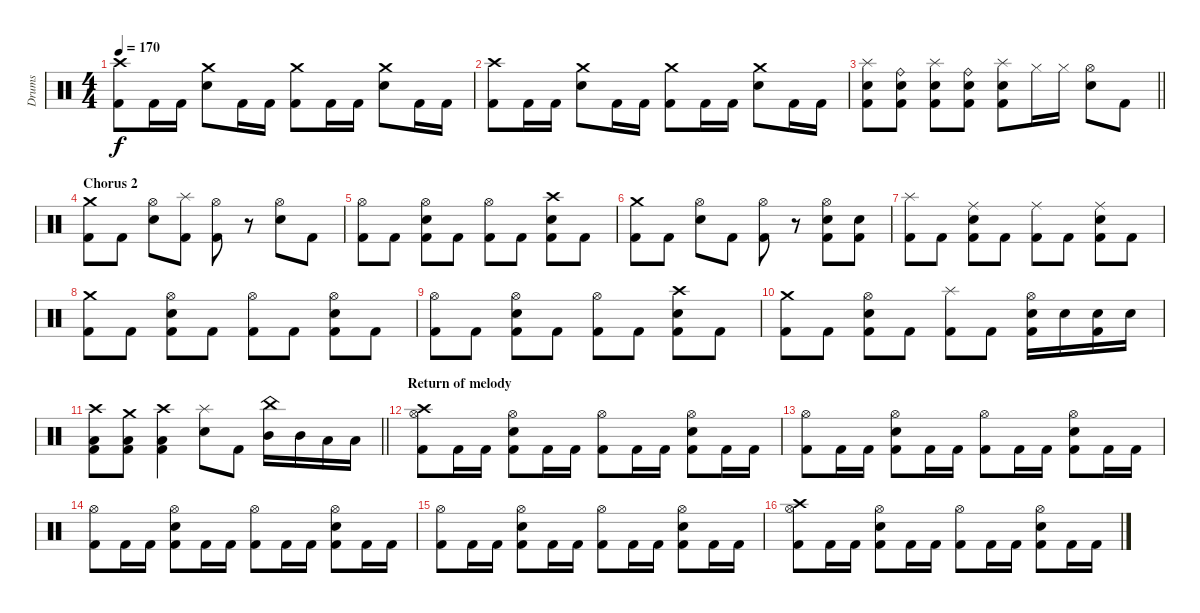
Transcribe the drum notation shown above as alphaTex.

\track ("Drums" "Drums") {instrument percussion}
\staff {score}
\articulation defaults
\ts (4 4)
\tempo 170
\clef neutral
\ks c
("Crash high (hit)" "Kick (hit) 2").8{dy f} "Kick (hit) 2".16 "Kick (hit) 2".16 ("Crash medium (hit)" "Snare (hit) 2").8 "Kick (hit) 2".16 "Kick (hit) 2".16 ("Crash medium (hit)" "Kick (hit) 2").8 "Kick (hit) 2".16 "Kick (hit) 2".16 ("Crash medium (hit)" "Snare (hit) 2").8 "Kick (hit) 2".16 "Kick (hit) 2".16 |
("Crash high (hit)" "Kick (hit) 2").8 "Kick (hit) 2".16 "Kick (hit) 2".16 ("Crash medium (hit)" "Snare (hit) 2").8 "Kick (hit) 2".16 "Kick (hit) 2".16 ("Crash medium (hit)" "Kick (hit) 2").8 "Kick (hit) 2".16 "Kick (hit) 2".16 ("Crash medium (hit)" "Snare (hit) 2").8 "Kick (hit) 2".16 "Kick (hit) 2".16 |
\barLineRight lightlight
("Splash (hit)" "Snare (hit) 2" "Kick (hit) 2").8 ("Ride (bell)" "Snare (hit) 2" "Kick (hit) 2").8 ("Splash (hit)" "Snare (hit) 2" "Kick (hit) 2").8 ("Ride (bell)" "Snare (hit) 2" "Kick (hit) 2").8 ("Splash (hit)" "Snare (hit) 2" "Kick (hit) 2").8 "Hi-Hat (closed)".16 "Hi-Hat (closed)".16 ("Hi-Hat (open)" "Snare (hit) 2").8 "Kick (hit) 2".8 |
\section ("" "Chorus 2")
("Crash medium (hit)" "Kick (hit) 2").8 "Kick (hit) 2".8 ("Hi-Hat (open)" "Snare (hit) 2").8 ("Splash (hit)" "Kick (hit) 2").8 ("Hi-Hat (open)" "Kick (hit) 2").8 r.8 ("Hi-Hat (open)" "Snare (hit) 2").8 "Kick (hit) 2".8 |
("Hi-Hat (open)" "Kick (hit) 2").8 "Kick (hit) 2".8 ("Hi-Hat (open)" "Snare (hit) 2" "Kick (hit) 2").8 "Kick (hit) 2".8 ("Hi-Hat (open)" "Kick (hit) 2").8 "Kick (hit) 2".8 ("Crash high (hit)" "Snare (hit) 2" "Kick (hit) 2").8 "Kick (hit) 2".8 |
("Crash medium (hit)" "Kick (hit) 2").8 "Kick (hit) 2".8 ("Hi-Hat (open)" "Snare (hit) 2").8 "Kick (hit) 2".8 ("Hi-Hat (open)" "Kick (hit) 2").8 r.8 ("Hi-Hat (open)" "Snare (hit) 2" "Kick (hit) 2").8 ("Snare (hit) 2" "Kick (hit) 2").8 |
("Splash (hit)" "Kick (hit) 2").8 "Kick (hit) 2".8 ("Ride (middle)" "Snare (hit) 2" "Kick (hit) 2").8 "Kick (hit) 2".8 ("Ride (middle)" "Kick (hit) 2").8 "Kick (hit) 2".8 ("Ride (middle)" "Snare (hit) 2" "Kick (hit) 2").8 "Kick (hit) 2".8 |
("Crash medium (hit)" "Kick (hit) 2").8 "Kick (hit) 2".8 ("Hi-Hat (open)" "Snare (hit) 2" "Kick (hit) 2").8 "Kick (hit) 2".8 ("Hi-Hat (open)" "Kick (hit) 2").8 "Kick (hit) 2".8 ("Hi-Hat (open)" "Snare (hit) 2" "Kick (hit) 2").8 "Kick (hit) 2".8 |
("Hi-Hat (open)" "Kick (hit) 2").8 "Kick (hit) 2".8 ("Hi-Hat (open)" "Snare (hit) 2" "Kick (hit) 2").8 "Kick (hit) 2".8 ("Hi-Hat (open)" "Kick (hit) 2").8 "Kick (hit) 2".8 ("Crash high (hit)" "Snare (hit) 2" "Kick (hit) 2").8 "Kick (hit) 2".8 |
("Crash medium (hit)" "Kick (hit) 2").8 "Kick (hit) 2".8 ("Hi-Hat (open)" "Snare (hit) 2" "Kick (hit) 2").8 "Kick (hit) 2".8 ("Splash (hit)" "Kick (hit) 2").8 "Kick (hit) 2".8 ("Hi-Hat (open)" "Snare (hit) 2" "Kick (hit) 2").16 "Snare (hit) 2".16 ("Snare (hit) 2" "Kick (hit) 2").16 "Snare (hit) 2".16 |
\barLineRight lightlight
("Crash high (hit)" "Low Floor Tom (hit)" "Kick (hit) 2").8 ("Crash medium (hit)" "Low Floor Tom (hit)" "Kick (hit) 2").8 ("Crash high (hit)" "Low Floor Tom (hit)" "Kick (hit) 2").4 ("Splash (hit)" "Snare (hit) 2").8 "Kick (hit) 2".8 ("China (hit)" "Mid Tom (hit)").16 "Mid Tom (hit)".16 "Low Tom (hit)".16 "Low Tom (hit)".16 |
\section ("" "Return of melody")
("Crash high (hit)" "Hi-Hat (open)" "Kick (hit) 2").8 "Kick (hit) 2".16 "Kick (hit) 2".16 ("Hi-Hat (open)" "Snare (hit) 2" "Kick (hit) 2").8 "Kick (hit) 2".16 "Kick (hit) 2".16 ("Hi-Hat (open)" "Kick (hit) 2").8 "Kick (hit) 2".16 "Kick (hit) 2".16 ("Hi-Hat (open)" "Snare (hit) 2" "Kick (hit) 2").8 "Kick (hit) 2".16 "Kick (hit) 2".16 |
("Hi-Hat (open)" "Kick (hit) 2").8 "Kick (hit) 2".16 "Kick (hit) 2".16 ("Hi-Hat (open)" "Snare (hit) 2" "Kick (hit) 2").8 "Kick (hit) 2".16 "Kick (hit) 2".16 ("Hi-Hat (open)" "Kick (hit) 2").8 "Kick (hit) 2".16 "Kick (hit) 2".16 ("Hi-Hat (open)" "Snare (hit) 2" "Kick (hit) 2").8 "Kick (hit) 2".16 "Kick (hit) 2".16 |
("Hi-Hat (open)" "Kick (hit) 2").8 "Kick (hit) 2".16 "Kick (hit) 2".16 ("Hi-Hat (open)" "Snare (hit) 2" "Kick (hit) 2").8 "Kick (hit) 2".16 "Kick (hit) 2".16 ("Hi-Hat (open)" "Kick (hit) 2").8 "Kick (hit) 2".16 "Kick (hit) 2".16 ("Hi-Hat (open)" "Snare (hit) 2" "Kick (hit) 2").8 "Kick (hit) 2".16 "Kick (hit) 2".16 |
("Hi-Hat (open)" "Kick (hit) 2").8 "Kick (hit) 2".16 "Kick (hit) 2".16 ("Hi-Hat (open)" "Snare (hit) 2" "Kick (hit) 2").8 "Kick (hit) 2".16 "Kick (hit) 2".16 ("Hi-Hat (open)" "Kick (hit) 2").8 "Kick (hit) 2".16 "Kick (hit) 2".16 ("Hi-Hat (open)" "Snare (hit) 2" "Kick (hit) 2").8 "Kick (hit) 2".16 "Kick (hit) 2".16 |
("Crash high (hit)" "Hi-Hat (open)" "Kick (hit) 2").8 "Kick (hit) 2".16 "Kick (hit) 2".16 ("Hi-Hat (open)" "Snare (hit) 2" "Kick (hit) 2").8 "Kick (hit) 2".16 "Kick (hit) 2".16 ("Hi-Hat (open)" "Kick (hit) 2").8 "Kick (hit) 2".16 "Kick (hit) 2".16 ("Hi-Hat (open)" "Snare (hit) 2" "Kick (hit) 2").8 "Kick (hit) 2".16 "Kick (hit) 2".16
